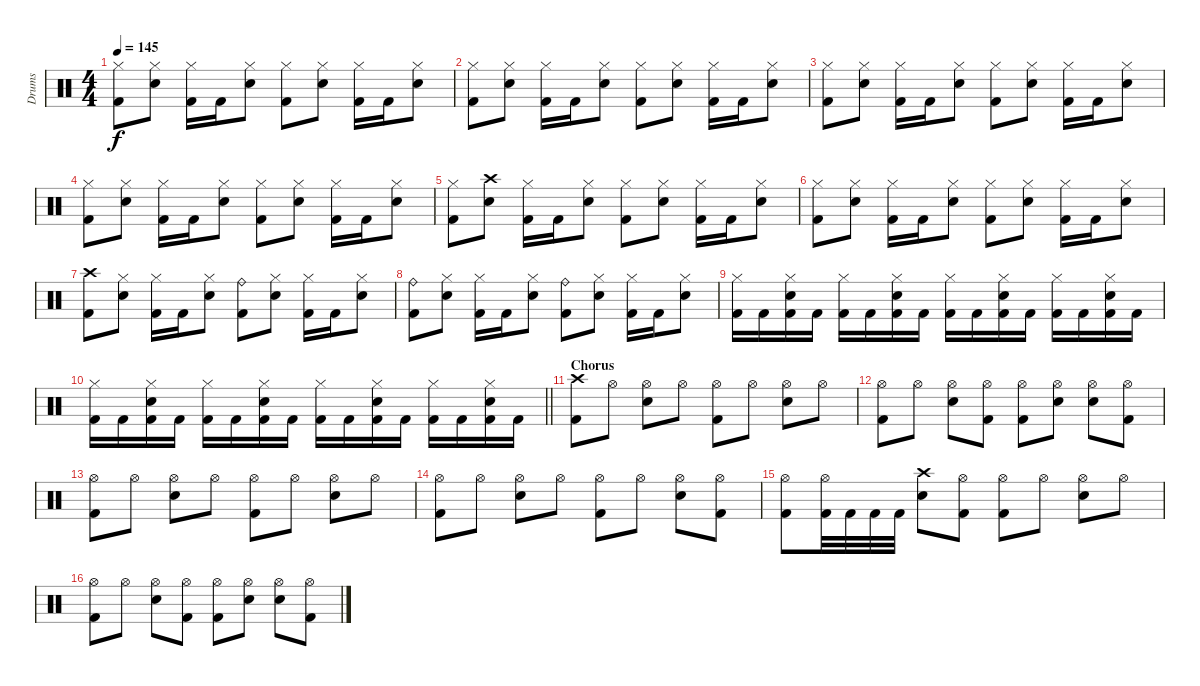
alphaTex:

\track ("Drums" "Drums") {instrument percussion}
\staff {score}
\articulation defaults
\ts (4 4)
\tempo 145
\clef neutral
\ks c
("Hi-Hat (closed)" "Kick (hit) 2").8{dy f} ("Hi-Hat (closed)" "Snare (hit) 2").8 ("Hi-Hat (closed)" "Kick (hit) 2").16 "Kick (hit) 2".16 ("Hi-Hat (closed)" "Snare (hit) 2").8 ("Hi-Hat (closed)" "Kick (hit) 2").8 ("Hi-Hat (closed)" "Snare (hit) 2").8 ("Hi-Hat (closed)" "Kick (hit) 2").16 "Kick (hit) 2".16 ("Hi-Hat (closed)" "Snare (hit) 2").8 |
("Hi-Hat (closed)" "Kick (hit) 2").8 ("Hi-Hat (closed)" "Snare (hit) 2").8 ("Hi-Hat (closed)" "Kick (hit) 2").16 "Kick (hit) 2".16 ("Hi-Hat (closed)" "Snare (hit) 2").8 ("Hi-Hat (closed)" "Kick (hit) 2").8 ("Hi-Hat (closed)" "Snare (hit) 2").8 ("Hi-Hat (closed)" "Kick (hit) 2").16 "Kick (hit) 2".16 ("Hi-Hat (closed)" "Snare (hit) 2").8 |
("Hi-Hat (closed)" "Kick (hit) 2").8 ("Hi-Hat (closed)" "Snare (hit) 2").8 ("Hi-Hat (closed)" "Kick (hit) 2").16 "Kick (hit) 2".16 ("Hi-Hat (closed)" "Snare (hit) 2").8 ("Hi-Hat (closed)" "Kick (hit) 2").8 ("Hi-Hat (closed)" "Snare (hit) 2").8 ("Hi-Hat (closed)" "Kick (hit) 2").16 "Kick (hit) 2".16 ("Hi-Hat (closed)" "Snare (hit) 2").8 |
("Hi-Hat (closed)" "Kick (hit) 2").8 ("Hi-Hat (closed)" "Snare (hit) 2").8 ("Hi-Hat (closed)" "Kick (hit) 2").16 "Kick (hit) 2".16 ("Hi-Hat (closed)" "Snare (hit) 2").8 ("Hi-Hat (closed)" "Kick (hit) 2").8 ("Hi-Hat (closed)" "Snare (hit) 2").8 ("Hi-Hat (closed)" "Kick (hit) 2").16 "Kick (hit) 2".16 ("Hi-Hat (closed)" "Snare (hit) 2").8 |
("Hi-Hat (closed)" "Kick (hit) 2").8 ("Crash high (hit)" "Snare (hit) 2").8 ("Hi-Hat (closed)" "Kick (hit) 2").16 "Kick (hit) 2".16 ("Hi-Hat (closed)" "Snare (hit) 2").8 ("Hi-Hat (closed)" "Kick (hit) 2").8 ("Hi-Hat (closed)" "Snare (hit) 2").8 ("Hi-Hat (closed)" "Kick (hit) 2").16 "Kick (hit) 2".16 ("Hi-Hat (closed)" "Snare (hit) 2").8 |
("Hi-Hat (closed)" "Kick (hit) 2").8 ("Hi-Hat (closed)" "Snare (hit) 2").8 ("Hi-Hat (closed)" "Kick (hit) 2").16 "Kick (hit) 2".16 ("Hi-Hat (closed)" "Snare (hit) 2").8 ("Hi-Hat (closed)" "Kick (hit) 2").8 ("Hi-Hat (closed)" "Snare (hit) 2").8 ("Hi-Hat (closed)" "Kick (hit) 2").16 "Kick (hit) 2".16 ("Hi-Hat (closed)" "Snare (hit) 2").8 |
("Crash high (hit)" "Kick (hit) 2").8 ("Hi-Hat (closed)" "Snare (hit) 2").8 ("Hi-Hat (closed)" "Kick (hit) 2").16 "Kick (hit) 2".16 ("Hi-Hat (closed)" "Snare (hit) 2").8 ("Ride (bell)" "Kick (hit) 2").8 ("Hi-Hat (closed)" "Snare (hit) 2").8 ("Hi-Hat (closed)" "Kick (hit) 2").16 "Kick (hit) 2".16 ("Hi-Hat (closed)" "Snare (hit) 2").8 |
("Ride (bell)" "Kick (hit) 2").8 ("Hi-Hat (closed)" "Snare (hit) 2").8 ("Hi-Hat (closed)" "Kick (hit) 2").16 "Kick (hit) 2".16 ("Hi-Hat (closed)" "Snare (hit) 2").8 ("Ride (bell)" "Kick (hit) 2").8 ("Hi-Hat (closed)" "Snare (hit) 2").8 ("Hi-Hat (closed)" "Kick (hit) 2").16 "Kick (hit) 2".16 ("Hi-Hat (closed)" "Snare (hit) 2").8 |
("Hi-Hat (closed)" "Kick (hit) 2").16 "Kick (hit) 2".16 ("Hi-Hat (closed)" "Kick (hit) 2" "Snare (hit) 2").16 "Kick (hit) 2".16 ("Hi-Hat (closed)" "Kick (hit) 2").16 "Kick (hit) 2".16 ("Hi-Hat (closed)" "Kick (hit) 2" "Snare (hit) 2").16 "Kick (hit) 2".16 ("Hi-Hat (closed)" "Kick (hit) 2").16 "Kick (hit) 2".16 ("Hi-Hat (closed)" "Kick (hit) 2" "Snare (hit) 2").16 "Kick (hit) 2".16 ("Hi-Hat (closed)" "Kick (hit) 2").16 "Kick (hit) 2".16 ("Hi-Hat (closed)" "Kick (hit) 2" "Snare (hit) 2").16 "Kick (hit) 2".16 |
\barLineRight lightlight
("Hi-Hat (closed)" "Kick (hit) 2").16 "Kick (hit) 2".16 ("Hi-Hat (closed)" "Kick (hit) 2" "Snare (hit) 2").16 "Kick (hit) 2".16 ("Hi-Hat (closed)" "Kick (hit) 2").16 "Kick (hit) 2".16 ("Hi-Hat (closed)" "Kick (hit) 2" "Snare (hit) 2").16 "Kick (hit) 2".16 ("Hi-Hat (closed)" "Kick (hit) 2").16 "Kick (hit) 2".16 ("Hi-Hat (closed)" "Kick (hit) 2" "Snare (hit) 2").16 "Kick (hit) 2".16 ("Hi-Hat (closed)" "Kick (hit) 2").16 "Kick (hit) 2".16 ("Hi-Hat (closed)" "Kick (hit) 2" "Snare (hit) 2").16 "Kick (hit) 2".16 |
\section ("" "Chorus")
("Crash high (hit)" "Kick (hit) 2").8 "Hi-Hat (open)".8 ("Hi-Hat (open)" "Snare (hit) 2").8 "Hi-Hat (open)".8 ("Hi-Hat (open)" "Kick (hit) 2").8 "Hi-Hat (open)".8 ("Hi-Hat (open)" "Snare (hit) 2").8 "Hi-Hat (open)".8 |
("Hi-Hat (open)" "Kick (hit) 2").8 "Hi-Hat (open)".8 ("Hi-Hat (open)" "Snare (hit) 2").8 ("Hi-Hat (open)" "Kick (hit) 2").8 ("Hi-Hat (open)" "Kick (hit) 2").8 ("Hi-Hat (open)" "Snare (hit) 2").8 ("Hi-Hat (open)" "Snare (hit) 2").8 ("Hi-Hat (open)" "Kick (hit) 2").8 |
("Hi-Hat (open)" "Kick (hit) 2").8 "Hi-Hat (open)".8 ("Hi-Hat (open)" "Snare (hit) 2").8 "Hi-Hat (open)".8 ("Hi-Hat (open)" "Kick (hit) 2").8 "Hi-Hat (open)".8 ("Hi-Hat (open)" "Snare (hit) 2").8 "Hi-Hat (open)".8 |
("Hi-Hat (open)" "Kick (hit) 2").8 "Hi-Hat (open)".8 ("Hi-Hat (open)" "Snare (hit) 2").8 "Hi-Hat (open)".8 ("Hi-Hat (open)" "Kick (hit) 2").8 "Hi-Hat (open)".8 ("Hi-Hat (open)" "Snare (hit) 2").8 ("Hi-Hat (open)" "Kick (hit) 2").8 |
("Hi-Hat (open)" "Kick (hit) 2").8 ("Hi-Hat (open)" "Kick (hit) 2").32 "Kick (hit) 2".32 "Kick (hit) 2".32 "Kick (hit) 2".32 ("Crash high (hit)" "Snare (hit) 2").8 ("Hi-Hat (open)" "Kick (hit) 2").8 ("Hi-Hat (open)" "Kick (hit) 2").8 "Hi-Hat (open)".8 ("Hi-Hat (open)" "Snare (hit) 2").8 "Hi-Hat (open)".8 |
("Hi-Hat (open)" "Kick (hit) 2").8 "Hi-Hat (open)".8 ("Hi-Hat (open)" "Snare (hit) 2").8 ("Hi-Hat (open)" "Kick (hit) 2").8 ("Hi-Hat (open)" "Kick (hit) 2").8 ("Hi-Hat (open)" "Snare (hit) 2").8 ("Hi-Hat (open)" "Snare (hit) 2").8 ("Hi-Hat (open)" "Kick (hit) 2").8
